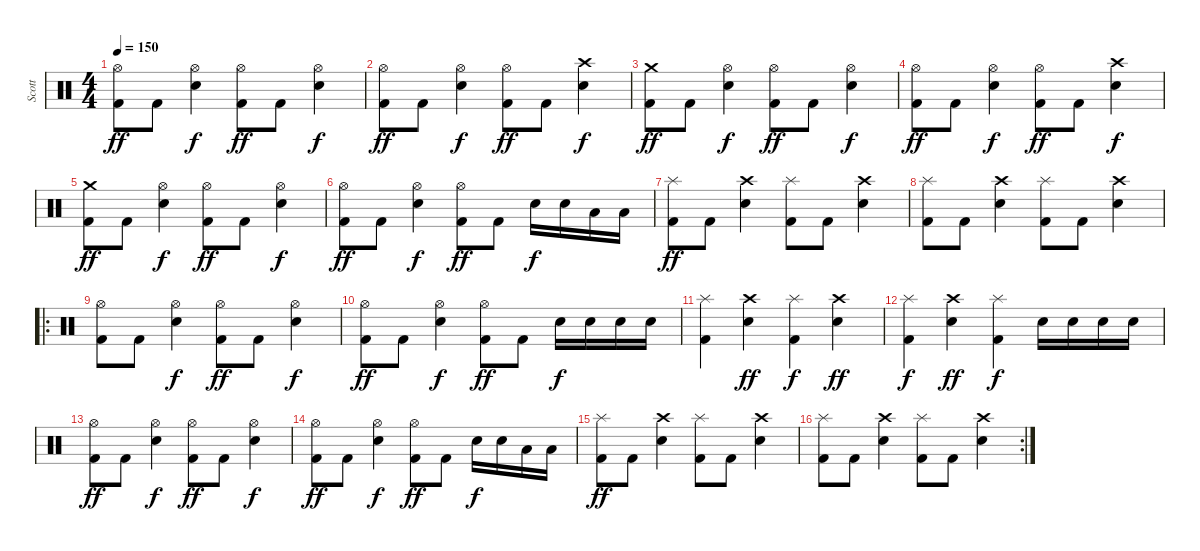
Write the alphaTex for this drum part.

\track ("Scott" "Scott") {solo instrument percussion}
\staff {score}
\articulation defaults
\ts (4 4)
\tempo 150
\clef neutral
\ks c
("Hi-Hat (open)" "Kick (hit) 2").8{dy ff} "Kick (hit) 2".8 ("Hi-Hat (open)" "Electric Snare (hit)").4{dy f} ("Hi-Hat (open)" "Kick (hit) 2").8{dy ff} "Kick (hit) 2".8 ("Hi-Hat (open)" "Electric Snare (hit)").4{dy f} |
("Hi-Hat (open)" "Kick (hit) 2").8{dy ff} "Kick (hit) 2".8 ("Hi-Hat (open)" "Electric Snare (hit)").4{dy f} ("Kick (hit) 2" "Hi-Hat (open)").8{dy ff} "Kick (hit) 2".8 ("Crash high (hit)" "Electric Snare (hit)").4{dy f} |
("Crash medium (hit)" "Kick (hit) 2").8{dy ff} "Kick (hit) 2".8 ("Hi-Hat (open)" "Electric Snare (hit)").4{dy f} ("Hi-Hat (open)" "Kick (hit) 2").8{dy ff} "Kick (hit) 2".8 ("Hi-Hat (open)" "Electric Snare (hit)").4{dy f} |
("Hi-Hat (open)" "Kick (hit) 2").8{dy ff} "Kick (hit) 2".8 ("Hi-Hat (open)" "Electric Snare (hit)").4{dy f} ("Kick (hit) 2" "Hi-Hat (open)").8{dy ff} "Kick (hit) 2".8 ("Crash high (hit)" "Electric Snare (hit)").4{dy f} |
("Crash medium (hit)" "Kick (hit) 2").8{dy ff} "Kick (hit) 2".8 ("Hi-Hat (open)" "Electric Snare (hit)").4{dy f} ("Hi-Hat (open)" "Kick (hit) 2").8{dy ff} "Kick (hit) 2".8 ("Hi-Hat (open)" "Electric Snare (hit)").4{dy f} |
("Hi-Hat (open)" "Kick (hit) 2").8{dy ff} "Kick (hit) 2".8 ("Hi-Hat (open)" "Electric Snare (hit)").4{dy f} ("Hi-Hat (open)" "Kick (hit) 2").8{dy ff} "Kick (hit) 2".8 "Electric Snare (hit)".16{dy f} "Electric Snare (hit)".16 "Low Tom (hit)".16 "Low Tom (hit)".16 |
("Kick (hit) 2" "Splash (hit)").8{dy ff} "Kick (hit) 2".8 ("Crash high (hit)" "Electric Snare (hit)").4 ("Kick (hit) 2" "Splash (hit)").8 "Kick (hit) 2".8 ("Crash high (hit)" "Electric Snare (hit)").4 |
("Kick (hit) 2" "Splash (hit)").8 "Kick (hit) 2".8 ("Crash high (hit)" "Electric Snare (hit)").4 ("Kick (hit) 2" "Splash (hit)").8 "Kick (hit) 2".8 ("Crash high (hit)" "Electric Snare (hit)").4 |
\ro
("Hi-Hat (open)" "Kick (hit) 2").8 "Kick (hit) 2".8 ("Hi-Hat (open)" "Electric Snare (hit)").4{dy f} ("Hi-Hat (open)" "Kick (hit) 2").8{dy ff} "Kick (hit) 2".8 ("Hi-Hat (open)" "Electric Snare (hit)").4{dy f} |
("Hi-Hat (open)" "Kick (hit) 2").8{dy ff} "Kick (hit) 2".8 ("Hi-Hat (open)" "Electric Snare (hit)").4{dy f} ("Hi-Hat (open)" "Kick (hit) 2").8{dy ff} "Kick (hit) 2".8 "Electric Snare (hit)".16{dy f} "Electric Snare (hit)".16 "Electric Snare (hit)".16 "Electric Snare (hit)".16 |
("Splash (hit)" "Kick (hit) 2").4 ("Crash high (hit)" "Electric Snare (hit)").4{dy ff} ("Splash (hit)" "Kick (hit) 2").4{dy f} ("Crash high (hit)" "Electric Snare (hit)").4{dy ff} |
("Splash (hit)" "Kick (hit) 2").4{dy f} ("Crash high (hit)" "Electric Snare (hit)").4{dy ff} ("Splash (hit)" "Kick (hit) 2").4{dy f beam split} "Electric Snare (hit)".16 "Electric Snare (hit)".16{beam merge} "Electric Snare (hit)".16 "Electric Snare (hit)".16 |
("Hi-Hat (open)" "Kick (hit) 2").8{dy ff} "Kick (hit) 2".8 ("Hi-Hat (open)" "Electric Snare (hit)").4{dy f} ("Hi-Hat (open)" "Kick (hit) 2").8{dy ff} "Kick (hit) 2".8 ("Hi-Hat (open)" "Electric Snare (hit)").4{dy f} |
("Hi-Hat (open)" "Kick (hit) 2").8{dy ff} "Kick (hit) 2".8 ("Hi-Hat (open)" "Electric Snare (hit)").4{dy f} ("Hi-Hat (open)" "Kick (hit) 2").8{dy ff} "Kick (hit) 2".8 "Electric Snare (hit)".16{dy f} "Electric Snare (hit)".16 "Low Tom (hit)".16 "Low Tom (hit)".16 |
("Kick (hit) 2" "Splash (hit)").8{dy ff} "Kick (hit) 2".8 ("Crash high (hit)" "Electric Snare (hit)").4 ("Kick (hit) 2" "Splash (hit)").8 "Kick (hit) 2".8 ("Crash high (hit)" "Electric Snare (hit)").4 |
\rc 2
("Kick (hit) 2" "Splash (hit)").8 "Kick (hit) 2".8 ("Crash high (hit)" "Electric Snare (hit)").4 ("Kick (hit) 2" "Splash (hit)").8 "Kick (hit) 2".8 ("Crash high (hit)" "Electric Snare (hit)").4
